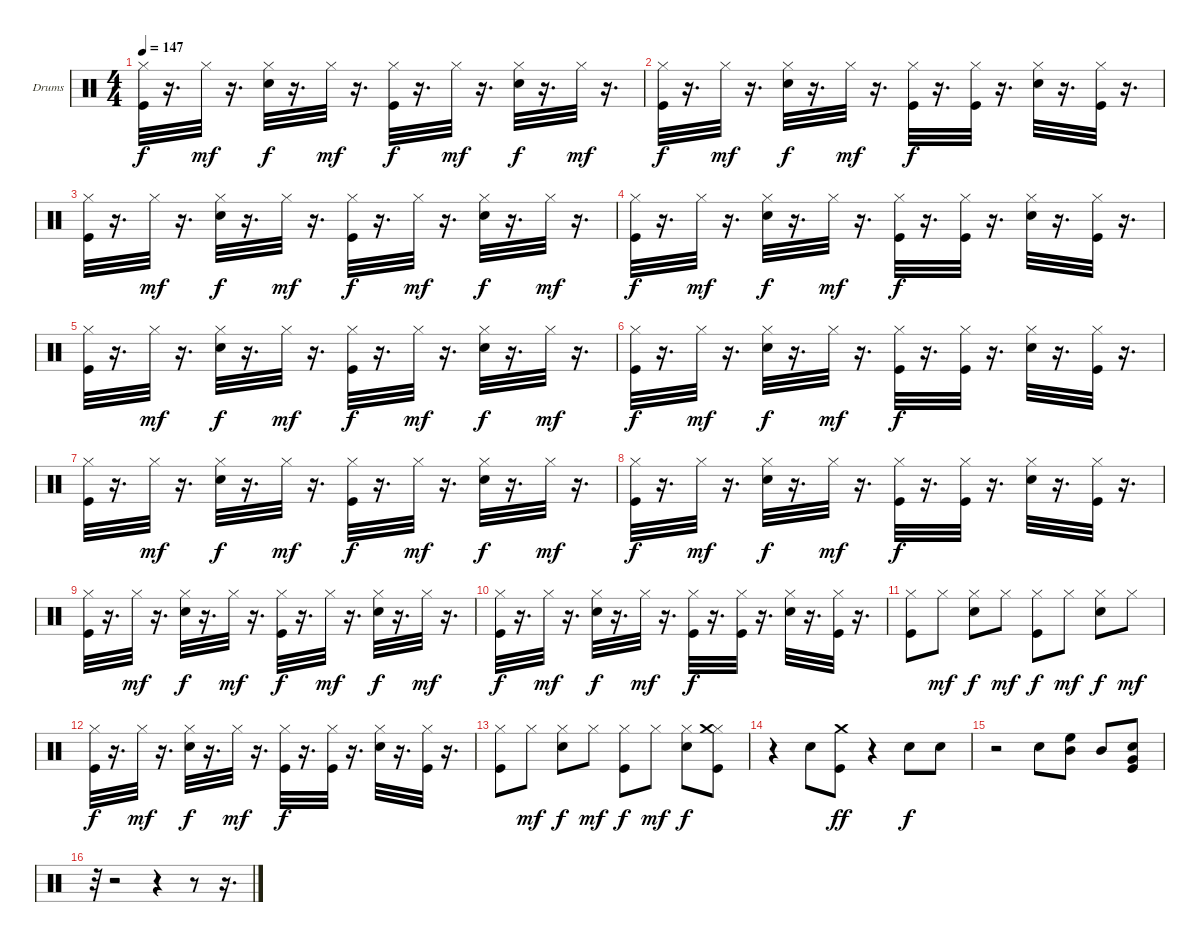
\bracketExtendMode groupsimilarinstruments
\firstSystemTrackNameOrientation horizontal
\otherSystemsTrackNameOrientation horizontal
\track ("Drumkit" "Drums") {instrument percussion}
\staff {score}
\articulation defaults
\ts (4 4)
\tempo 147
\clef neutral
\ks c
("Kick (hit)" "Hi-Hat (closed)").32{dy f} r.16{d} "Hi-Hat (closed)".32{dy mf} r.16{d} ("Snare (hit) 2" "Hi-Hat (closed)").32{dy f} r.16{d} "Hi-Hat (closed)".32{dy mf} r.16{d} ("Kick (hit)" "Hi-Hat (closed)").32{dy f} r.16{d} "Hi-Hat (closed)".32{dy mf} r.16{d} ("Snare (hit) 2" "Hi-Hat (closed)").32{dy f} r.16{d} "Hi-Hat (closed)".32{dy mf} r.16{d} |
("Kick (hit)" "Hi-Hat (closed)").32{dy f} r.16{d} "Hi-Hat (closed)".32{dy mf} r.16{d} ("Snare (hit) 2" "Hi-Hat (closed)").32{dy f} r.16{d} "Hi-Hat (closed)".32{dy mf} r.16{d} ("Kick (hit)" "Hi-Hat (closed)").32{dy f} r.16{d} ("Kick (hit)" "Hi-Hat (closed)").32 r.16{d} ("Snare (hit) 2" "Hi-Hat (closed)").32 r.16{d} ("Kick (hit)" "Hi-Hat (closed)").32 r.16{d} |
("Kick (hit)" "Hi-Hat (closed)").32 r.16{d} "Hi-Hat (closed)".32{dy mf} r.16{d} ("Snare (hit) 2" "Hi-Hat (closed)").32{dy f} r.16{d} "Hi-Hat (closed)".32{dy mf} r.16{d} ("Kick (hit)" "Hi-Hat (closed)").32{dy f} r.16{d} "Hi-Hat (closed)".32{dy mf} r.16{d} ("Snare (hit) 2" "Hi-Hat (closed)").32{dy f} r.16{d} "Hi-Hat (closed)".32{dy mf} r.16{d} |
("Kick (hit)" "Hi-Hat (closed)").32{dy f} r.16{d} "Hi-Hat (closed)".32{dy mf} r.16{d} ("Snare (hit) 2" "Hi-Hat (closed)").32{dy f} r.16{d} "Hi-Hat (closed)".32{dy mf} r.16{d} ("Kick (hit)" "Hi-Hat (closed)").32{dy f} r.16{d} ("Kick (hit)" "Hi-Hat (closed)").32 r.16{d} ("Snare (hit) 2" "Hi-Hat (closed)").32 r.16{d} ("Kick (hit)" "Hi-Hat (closed)").32 r.16{d} |
("Kick (hit)" "Hi-Hat (closed)").32 r.16{d} "Hi-Hat (closed)".32{dy mf} r.16{d} ("Snare (hit) 2" "Hi-Hat (closed)").32{dy f} r.16{d} "Hi-Hat (closed)".32{dy mf} r.16{d} ("Kick (hit)" "Hi-Hat (closed)").32{dy f} r.16{d} "Hi-Hat (closed)".32{dy mf} r.16{d} ("Snare (hit) 2" "Hi-Hat (closed)").32{dy f} r.16{d} "Hi-Hat (closed)".32{dy mf} r.16{d} |
("Kick (hit)" "Hi-Hat (closed)").32{dy f} r.16{d} "Hi-Hat (closed)".32{dy mf} r.16{d} ("Snare (hit) 2" "Hi-Hat (closed)").32{dy f} r.16{d} "Hi-Hat (closed)".32{dy mf} r.16{d} ("Kick (hit)" "Hi-Hat (closed)").32{dy f} r.16{d} ("Kick (hit)" "Hi-Hat (closed)").32 r.16{d} ("Snare (hit) 2" "Hi-Hat (closed)").32 r.16{d} ("Kick (hit)" "Hi-Hat (closed)").32 r.16{d} |
("Kick (hit)" "Hi-Hat (closed)").32 r.16{d} "Hi-Hat (closed)".32{dy mf} r.16{d} ("Snare (hit) 2" "Hi-Hat (closed)").32{dy f} r.16{d} "Hi-Hat (closed)".32{dy mf} r.16{d} ("Kick (hit)" "Hi-Hat (closed)").32{dy f} r.16{d} "Hi-Hat (closed)".32{dy mf} r.16{d} ("Snare (hit) 2" "Hi-Hat (closed)").32{dy f} r.16{d} "Hi-Hat (closed)".32{dy mf} r.16{d} |
("Kick (hit)" "Hi-Hat (closed)").32{dy f} r.16{d} "Hi-Hat (closed)".32{dy mf} r.16{d} ("Snare (hit) 2" "Hi-Hat (closed)").32{dy f} r.16{d} "Hi-Hat (closed)".32{dy mf} r.16{d} ("Kick (hit)" "Hi-Hat (closed)").32{dy f} r.16{d} ("Kick (hit)" "Hi-Hat (closed)").32 r.16{d} ("Snare (hit) 2" "Hi-Hat (closed)").32 r.16{d} ("Kick (hit)" "Hi-Hat (closed)").32 r.16{d} |
("Kick (hit)" "Hi-Hat (closed)").32 r.16{d} "Hi-Hat (closed)".32{dy mf} r.16{d} ("Snare (hit) 2" "Hi-Hat (closed)").32{dy f} r.16{d} "Hi-Hat (closed)".32{dy mf} r.16{d} ("Kick (hit)" "Hi-Hat (closed)").32{dy f} r.16{d} "Hi-Hat (closed)".32{dy mf} r.16{d} ("Snare (hit) 2" "Hi-Hat (closed)").32{dy f} r.16{d} "Hi-Hat (closed)".32{dy mf} r.16{d} |
("Kick (hit)" "Hi-Hat (closed)").32{dy f} r.16{d} "Hi-Hat (closed)".32{dy mf} r.16{d} ("Snare (hit) 2" "Hi-Hat (closed)").32{dy f} r.16{d} "Hi-Hat (closed)".32{dy mf} r.16{d} ("Kick (hit)" "Hi-Hat (closed)").32{dy f} r.16{d} ("Kick (hit)" "Hi-Hat (closed)").32 r.16{d} ("Snare (hit) 2" "Hi-Hat (closed)").32 r.16{d} ("Kick (hit)" "Hi-Hat (closed)").32 r.16{d} |
("Hi-Hat (closed)" "Kick (hit)").8 "Hi-Hat (closed)".8{dy mf} ("Hi-Hat (closed)" "Snare (hit) 2").8{dy f} "Hi-Hat (closed)".8{dy mf} ("Hi-Hat (closed)" "Kick (hit)").8{dy f} "Hi-Hat (closed)".8{dy mf} ("Hi-Hat (closed)" "Snare (hit) 2").8{dy f} "Hi-Hat (closed)".8{dy mf} |
("Kick (hit)" "Hi-Hat (closed)").32{dy f} r.16{d} "Hi-Hat (closed)".32{dy mf} r.16{d} ("Snare (hit) 2" "Hi-Hat (closed)").32{dy f} r.16{d} "Hi-Hat (closed)".32{dy mf} r.16{d} ("Kick (hit)" "Hi-Hat (closed)").32{dy f} r.16{d} ("Kick (hit)" "Hi-Hat (closed)").32 r.16{d} ("Snare (hit) 2" "Hi-Hat (closed)").32 r.16{d} ("Kick (hit)" "Hi-Hat (closed)").32 r.16{d} |
("Kick (hit)" "Hi-Hat (closed)").8 "Hi-Hat (closed)".8{dy mf} ("Snare (hit) 2" "Hi-Hat (closed)").8{dy f} "Hi-Hat (closed)".8{dy mf} ("Kick (hit)" "Hi-Hat (closed)").8{dy f} "Hi-Hat (closed)".8{dy mf} ("Snare (hit) 2" "Hi-Hat (closed)").8{dy f} ("Kick (hit)" "Hi-Hat (closed)" "Crash medium (hit)").8 |
r.4 "Snare (hit) 2".8 ("Crash medium (hit)" "Kick (hit)").8{dy ff} r.4 "Snare (hit) 2".8{dy f} "Snare (hit) 2".8 |
r.2 "Snare (hit) 2".8 ("High Floor Tom (hit)" "Mid Tom (hit)").8 "Mid Tom (hit)".8 ("Very Low Tom (hit)" "Snare (hit) 2" "Kick (hit)").8 |
r.32 r.2 r.4 r.8 r.16{d}
